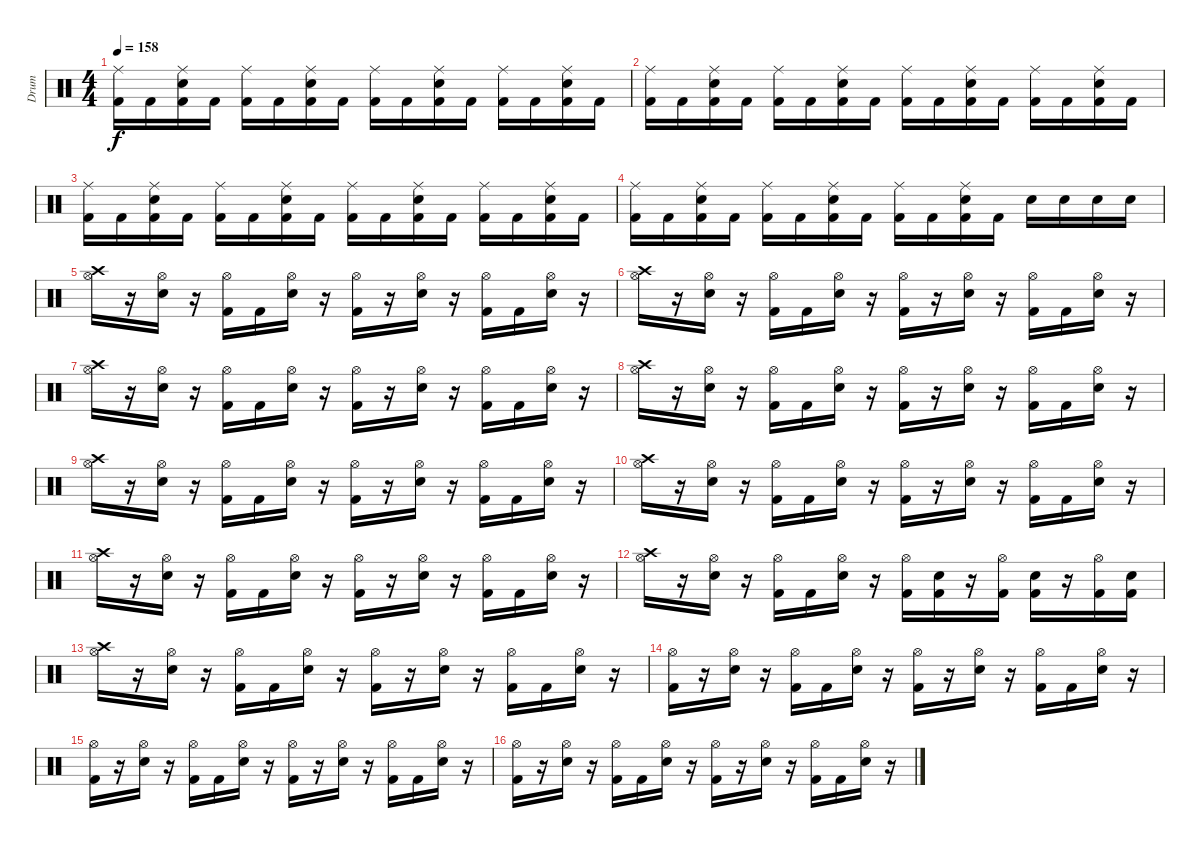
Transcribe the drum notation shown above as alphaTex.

\track ("Drum" "Drum") {instrument percussion}
\staff {score}
\articulation defaults
\ts (4 4)
\tempo 158
\clef neutral
\ks c
("Kick (hit) 2" "Ride (middle)").16{dy f} "Kick (hit) 2".16 ("Electric Snare (hit)" "Kick (hit) 2" "Ride (middle)").16 "Kick (hit) 2".16 ("Kick (hit) 2" "Ride (middle)").16 "Kick (hit) 2".16 ("Electric Snare (hit)" "Kick (hit) 2" "Ride (middle)").16 "Kick (hit) 2".16 ("Kick (hit) 2" "Ride (middle)").16 "Kick (hit) 2".16 ("Electric Snare (hit)" "Kick (hit) 2" "Ride (middle)").16 "Kick (hit) 2".16 ("Kick (hit) 2" "Ride (middle)").16 "Kick (hit) 2".16 ("Electric Snare (hit)" "Kick (hit) 2" "Ride (middle)").16 "Kick (hit) 2".16 |
("Kick (hit) 2" "Ride (middle)").16 "Kick (hit) 2".16 ("Electric Snare (hit)" "Kick (hit) 2" "Ride (middle)").16 "Kick (hit) 2".16 ("Kick (hit) 2" "Ride (middle)").16 "Kick (hit) 2".16 ("Electric Snare (hit)" "Kick (hit) 2" "Ride (middle)").16 "Kick (hit) 2".16 ("Kick (hit) 2" "Ride (middle)").16 "Kick (hit) 2".16 ("Electric Snare (hit)" "Kick (hit) 2" "Ride (middle)").16 "Kick (hit) 2".16 ("Kick (hit) 2" "Ride (middle)").16 "Kick (hit) 2".16 ("Electric Snare (hit)" "Kick (hit) 2" "Ride (middle)").16 "Kick (hit) 2".16 |
("Kick (hit) 2" "Ride (middle)").16 "Kick (hit) 2".16 ("Electric Snare (hit)" "Kick (hit) 2" "Ride (middle)").16 "Kick (hit) 2".16 ("Kick (hit) 2" "Ride (middle)").16 "Kick (hit) 2".16 ("Electric Snare (hit)" "Kick (hit) 2" "Ride (middle)").16 "Kick (hit) 2".16 ("Kick (hit) 2" "Ride (middle)").16 "Kick (hit) 2".16 ("Electric Snare (hit)" "Kick (hit) 2" "Ride (middle)").16 "Kick (hit) 2".16 ("Kick (hit) 2" "Ride (middle)").16 "Kick (hit) 2".16 ("Electric Snare (hit)" "Kick (hit) 2" "Ride (middle)").16 "Kick (hit) 2".16 |
("Kick (hit) 2" "Ride (middle)").16 "Kick (hit) 2".16 ("Electric Snare (hit)" "Kick (hit) 2" "Ride (middle)").16 "Kick (hit) 2".16 ("Kick (hit) 2" "Ride (middle)").16 "Kick (hit) 2".16 ("Electric Snare (hit)" "Kick (hit) 2" "Ride (middle)").16 "Kick (hit) 2".16 ("Kick (hit) 2" "Ride (middle)").16 "Kick (hit) 2".16 ("Electric Snare (hit)" "Kick (hit) 2" "Ride (middle)").16 "Kick (hit) 2".16 "Electric Snare (hit)".16 "Electric Snare (hit)".16 "Electric Snare (hit)".16 "Electric Snare (hit)".16 |
("Hi-Hat (open)" "Crash high (hit)").16 r.16 ("Hi-Hat (open)" "Electric Snare (hit)").16 r.16 ("Hi-Hat (open)" "Kick (hit) 2").16 "Kick (hit) 2".16 ("Hi-Hat (open)" "Electric Snare (hit)").16 r.16 ("Hi-Hat (open)" "Kick (hit) 2").16 r.16 ("Hi-Hat (open)" "Electric Snare (hit)").16 r.16 ("Hi-Hat (open)" "Kick (hit) 2").16 "Kick (hit) 2".16 ("Hi-Hat (open)" "Electric Snare (hit)").16 r.16 |
("Hi-Hat (open)" "Crash high (hit)").16 r.16 ("Hi-Hat (open)" "Electric Snare (hit)").16 r.16 ("Hi-Hat (open)" "Kick (hit) 2").16 "Kick (hit) 2".16 ("Hi-Hat (open)" "Electric Snare (hit)").16 r.16 ("Hi-Hat (open)" "Kick (hit) 2").16 r.16 ("Hi-Hat (open)" "Electric Snare (hit)").16 r.16 ("Hi-Hat (open)" "Kick (hit) 2").16 "Kick (hit) 2".16 ("Hi-Hat (open)" "Electric Snare (hit)").16 r.16 |
("Hi-Hat (open)" "Crash high (hit)").16 r.16 ("Hi-Hat (open)" "Electric Snare (hit)").16 r.16 ("Hi-Hat (open)" "Kick (hit) 2").16 "Kick (hit) 2".16 ("Hi-Hat (open)" "Electric Snare (hit)").16 r.16 ("Hi-Hat (open)" "Kick (hit) 2").16 r.16 ("Hi-Hat (open)" "Electric Snare (hit)").16 r.16 ("Hi-Hat (open)" "Kick (hit) 2").16 "Kick (hit) 2".16 ("Hi-Hat (open)" "Electric Snare (hit)").16 r.16 |
("Hi-Hat (open)" "Crash high (hit)").16 r.16 ("Hi-Hat (open)" "Electric Snare (hit)").16 r.16 ("Hi-Hat (open)" "Kick (hit) 2").16 "Kick (hit) 2".16 ("Hi-Hat (open)" "Electric Snare (hit)").16 r.16 ("Hi-Hat (open)" "Kick (hit) 2").16 r.16 ("Hi-Hat (open)" "Electric Snare (hit)").16 r.16 ("Hi-Hat (open)" "Kick (hit) 2").16 "Kick (hit) 2".16 ("Hi-Hat (open)" "Electric Snare (hit)").16 r.16 |
("Hi-Hat (open)" "Crash high (hit)").16 r.16 ("Hi-Hat (open)" "Electric Snare (hit)").16 r.16 ("Hi-Hat (open)" "Kick (hit) 2").16 "Kick (hit) 2".16 ("Hi-Hat (open)" "Electric Snare (hit)").16 r.16 ("Hi-Hat (open)" "Kick (hit) 2").16 r.16 ("Hi-Hat (open)" "Electric Snare (hit)").16 r.16 ("Hi-Hat (open)" "Kick (hit) 2").16 "Kick (hit) 2".16 ("Hi-Hat (open)" "Electric Snare (hit)").16 r.16 |
("Hi-Hat (open)" "Crash high (hit)").16 r.16 ("Hi-Hat (open)" "Electric Snare (hit)").16 r.16 ("Hi-Hat (open)" "Kick (hit) 2").16 "Kick (hit) 2".16 ("Hi-Hat (open)" "Electric Snare (hit)").16 r.16 ("Hi-Hat (open)" "Kick (hit) 2").16 r.16 ("Hi-Hat (open)" "Electric Snare (hit)").16 r.16 ("Hi-Hat (open)" "Kick (hit) 2").16 "Kick (hit) 2".16 ("Hi-Hat (open)" "Electric Snare (hit)").16 r.16 |
("Hi-Hat (open)" "Crash high (hit)").16 r.16 ("Hi-Hat (open)" "Electric Snare (hit)").16 r.16 ("Hi-Hat (open)" "Kick (hit) 2").16 "Kick (hit) 2".16 ("Hi-Hat (open)" "Electric Snare (hit)").16 r.16 ("Hi-Hat (open)" "Kick (hit) 2").16 r.16 ("Hi-Hat (open)" "Electric Snare (hit)").16 r.16 ("Hi-Hat (open)" "Kick (hit) 2").16 "Kick (hit) 2".16 ("Hi-Hat (open)" "Electric Snare (hit)").16 r.16 |
("Hi-Hat (open)" "Crash high (hit)").16 r.16 ("Hi-Hat (open)" "Electric Snare (hit)").16 r.16 ("Hi-Hat (open)" "Kick (hit) 2").16 "Kick (hit) 2".16 ("Hi-Hat (open)" "Electric Snare (hit)").16 r.16 ("Hi-Hat (open)" "Kick (hit) 2").16 ("Electric Snare (hit)" "Kick (hit) 2").16 r.16 ("Hi-Hat (open)" "Kick (hit) 2").16 ("Electric Snare (hit)" "Kick (hit) 2").16 r.16 ("Hi-Hat (open)" "Kick (hit) 2").16 ("Electric Snare (hit)" "Kick (hit) 2").16 |
("Hi-Hat (open)" "Crash high (hit)").16 r.16 ("Hi-Hat (open)" "Electric Snare (hit)").16 r.16 ("Hi-Hat (open)" "Kick (hit) 2").16 "Kick (hit) 2".16 ("Hi-Hat (open)" "Electric Snare (hit)").16 r.16 ("Hi-Hat (open)" "Kick (hit) 2").16 r.16 ("Hi-Hat (open)" "Electric Snare (hit)").16 r.16 ("Hi-Hat (open)" "Kick (hit) 2").16 "Kick (hit) 2".16 ("Hi-Hat (open)" "Electric Snare (hit)").16 r.16 |
("Hi-Hat (open)" "Kick (hit) 2").16 r.16 ("Hi-Hat (open)" "Electric Snare (hit)").16 r.16 ("Hi-Hat (open)" "Kick (hit) 2").16 "Kick (hit) 2".16 ("Hi-Hat (open)" "Electric Snare (hit)").16 r.16 ("Hi-Hat (open)" "Kick (hit) 2").16 r.16 ("Hi-Hat (open)" "Electric Snare (hit)").16 r.16 ("Hi-Hat (open)" "Kick (hit) 2").16 "Kick (hit) 2".16 ("Hi-Hat (open)" "Electric Snare (hit)").16 r.16 |
("Hi-Hat (open)" "Kick (hit) 2").16 r.16 ("Hi-Hat (open)" "Electric Snare (hit)").16 r.16 ("Hi-Hat (open)" "Kick (hit) 2").16 "Kick (hit) 2".16 ("Hi-Hat (open)" "Electric Snare (hit)").16 r.16 ("Hi-Hat (open)" "Kick (hit) 2").16 r.16 ("Hi-Hat (open)" "Electric Snare (hit)").16 r.16 ("Hi-Hat (open)" "Kick (hit) 2").16 "Kick (hit) 2".16 ("Hi-Hat (open)" "Electric Snare (hit)").16 r.16 |
("Hi-Hat (open)" "Kick (hit) 2").16 r.16 ("Hi-Hat (open)" "Electric Snare (hit)").16 r.16 ("Hi-Hat (open)" "Kick (hit) 2").16 "Kick (hit) 2".16 ("Hi-Hat (open)" "Electric Snare (hit)").16 r.16 ("Hi-Hat (open)" "Kick (hit) 2").16 r.16 ("Hi-Hat (open)" "Electric Snare (hit)").16 r.16 ("Hi-Hat (open)" "Kick (hit) 2").16 "Kick (hit) 2".16 ("Hi-Hat (open)" "Electric Snare (hit)").16 r.16
